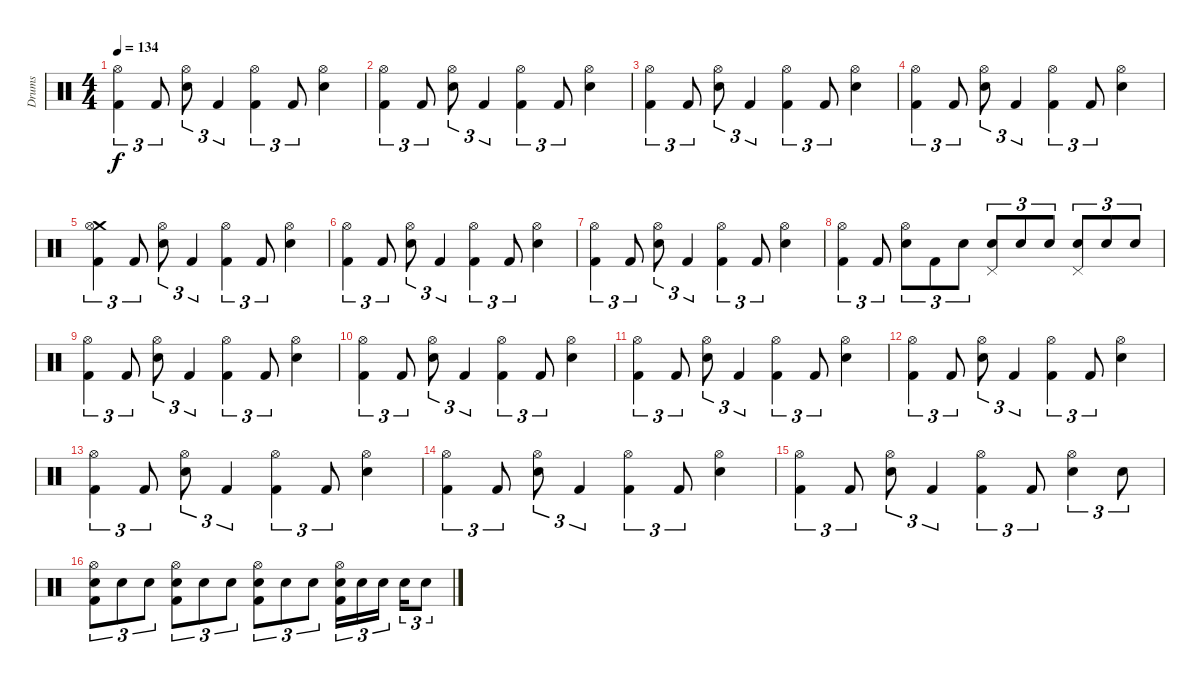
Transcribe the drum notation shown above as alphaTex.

\track ("Drums" "Drums") {instrument percussion}
\staff {score}
\articulation defaults
\ts (4 4)
\tempo 134
\clef neutral
\ks c
("Hi-Hat (open)" "Kick (hit) 2").4{tu (3 2) dy f} "Kick (hit) 2".8{tu (3 2)} ("Hi-Hat (open)" "Electric Snare (hit)").8{tu (3 2)} "Kick (hit) 2".4{tu (3 2)} ("Hi-Hat (open)" "Kick (hit) 2").4{tu (3 2)} "Kick (hit) 2".8{tu (3 2)} ("Hi-Hat (open)" "Electric Snare (hit)").4 |
("Hi-Hat (open)" "Kick (hit) 2").4{tu (3 2)} "Kick (hit) 2".8{tu (3 2)} ("Hi-Hat (open)" "Electric Snare (hit)").8{tu (3 2)} "Kick (hit) 2".4{tu (3 2)} ("Hi-Hat (open)" "Kick (hit) 2").4{tu (3 2)} "Kick (hit) 2".8{tu (3 2)} ("Hi-Hat (open)" "Electric Snare (hit)").4 |
("Hi-Hat (open)" "Kick (hit) 2").4{tu (3 2)} "Kick (hit) 2".8{tu (3 2)} ("Hi-Hat (open)" "Electric Snare (hit)").8{tu (3 2)} "Kick (hit) 2".4{tu (3 2)} ("Hi-Hat (open)" "Kick (hit) 2").4{tu (3 2)} "Kick (hit) 2".8{tu (3 2)} ("Hi-Hat (open)" "Electric Snare (hit)").4 |
("Hi-Hat (open)" "Kick (hit) 2").4{tu (3 2)} "Kick (hit) 2".8{tu (3 2)} ("Hi-Hat (open)" "Electric Snare (hit)").8{tu (3 2)} "Kick (hit) 2".4{tu (3 2)} ("Hi-Hat (open)" "Kick (hit) 2").4{tu (3 2)} "Kick (hit) 2".8{tu (3 2)} ("Hi-Hat (open)" "Electric Snare (hit)").4 |
("Crash medium (hit)" "Hi-Hat (open)" "Kick (hit) 2").4{tu (3 2)} "Kick (hit) 2".8{tu (3 2)} ("Hi-Hat (open)" "Electric Snare (hit)").8{tu (3 2)} "Kick (hit) 2".4{tu (3 2)} ("Hi-Hat (open)" "Kick (hit) 2").4{tu (3 2)} "Kick (hit) 2".8{tu (3 2)} ("Hi-Hat (open)" "Electric Snare (hit)").4 |
("Hi-Hat (open)" "Kick (hit) 2").4{tu (3 2)} "Kick (hit) 2".8{tu (3 2)} ("Hi-Hat (open)" "Electric Snare (hit)").8{tu (3 2)} "Kick (hit) 2".4{tu (3 2)} ("Hi-Hat (open)" "Kick (hit) 2").4{tu (3 2)} "Kick (hit) 2".8{tu (3 2)} ("Hi-Hat (open)" "Electric Snare (hit)").4 |
("Hi-Hat (open)" "Kick (hit) 2").4{tu (3 2)} "Kick (hit) 2".8{tu (3 2)} ("Hi-Hat (open)" "Electric Snare (hit)").8{tu (3 2)} "Kick (hit) 2".4{tu (3 2)} ("Hi-Hat (open)" "Kick (hit) 2").4{tu (3 2)} "Kick (hit) 2".8{tu (3 2)} ("Hi-Hat (open)" "Electric Snare (hit)").4 |
("Hi-Hat (open)" "Kick (hit) 2").4{tu (3 2)} "Kick (hit) 2".8{tu (3 2)} ("Hi-Hat (open)" "Electric Snare (hit)").8{tu (3 2)} "Kick (hit) 2".8{tu (3 2)} "Electric Snare (hit)".8{tu (3 2)} ("Pedal Hi-Hat (hit)" "Electric Snare (hit)").8{tu (3 2)} "Electric Snare (hit)".8{tu (3 2)} "Electric Snare (hit)".8{tu (3 2)} ("Pedal Hi-Hat (hit)" "Electric Snare (hit)").8{tu (3 2)} "Electric Snare (hit)".8{tu (3 2)} "Electric Snare (hit)".8{tu (3 2)} |
("Hi-Hat (open)" "Kick (hit) 2").4{tu (3 2)} "Kick (hit) 2".8{tu (3 2)} ("Hi-Hat (open)" "Electric Snare (hit)").8{tu (3 2)} "Kick (hit) 2".4{tu (3 2)} ("Hi-Hat (open)" "Kick (hit) 2").4{tu (3 2)} "Kick (hit) 2".8{tu (3 2)} ("Hi-Hat (open)" "Electric Snare (hit)").4 |
("Hi-Hat (open)" "Kick (hit) 2").4{tu (3 2)} "Kick (hit) 2".8{tu (3 2)} ("Hi-Hat (open)" "Electric Snare (hit)").8{tu (3 2)} "Kick (hit) 2".4{tu (3 2)} ("Hi-Hat (open)" "Kick (hit) 2").4{tu (3 2)} "Kick (hit) 2".8{tu (3 2)} ("Hi-Hat (open)" "Electric Snare (hit)").4 |
("Hi-Hat (open)" "Kick (hit) 2").4{tu (3 2)} "Kick (hit) 2".8{tu (3 2)} ("Hi-Hat (open)" "Electric Snare (hit)").8{tu (3 2)} "Kick (hit) 2".4{tu (3 2)} ("Hi-Hat (open)" "Kick (hit) 2").4{tu (3 2)} "Kick (hit) 2".8{tu (3 2)} ("Hi-Hat (open)" "Electric Snare (hit)").4 |
("Hi-Hat (open)" "Kick (hit) 2").4{tu (3 2)} "Kick (hit) 2".8{tu (3 2)} ("Hi-Hat (open)" "Electric Snare (hit)").8{tu (3 2)} "Kick (hit) 2".4{tu (3 2)} ("Hi-Hat (open)" "Kick (hit) 2").4{tu (3 2)} "Kick (hit) 2".8{tu (3 2)} ("Hi-Hat (open)" "Electric Snare (hit)").4 |
("Hi-Hat (open)" "Kick (hit) 2").4{tu (3 2)} "Kick (hit) 2".8{tu (3 2)} ("Hi-Hat (open)" "Electric Snare (hit)").8{tu (3 2)} "Kick (hit) 2".4{tu (3 2)} ("Hi-Hat (open)" "Kick (hit) 2").4{tu (3 2)} "Kick (hit) 2".8{tu (3 2)} ("Hi-Hat (open)" "Electric Snare (hit)").4 |
("Hi-Hat (open)" "Kick (hit) 2").4{tu (3 2)} "Kick (hit) 2".8{tu (3 2)} ("Hi-Hat (open)" "Electric Snare (hit)").8{tu (3 2)} "Kick (hit) 2".4{tu (3 2)} ("Hi-Hat (open)" "Kick (hit) 2").4{tu (3 2)} "Kick (hit) 2".8{tu (3 2)} ("Hi-Hat (open)" "Electric Snare (hit)").4 |
("Hi-Hat (open)" "Kick (hit) 2").4{tu (3 2)} "Kick (hit) 2".8{tu (3 2)} ("Hi-Hat (open)" "Electric Snare (hit)").8{tu (3 2)} "Kick (hit) 2".4{tu (3 2)} ("Hi-Hat (open)" "Kick (hit) 2").4{tu (3 2)} "Kick (hit) 2".8{tu (3 2)} ("Hi-Hat (open)" "Electric Snare (hit)").4{tu (3 2)} "Electric Snare (hit)".8{tu (3 2)} |
("Hi-Hat (open)" "Electric Snare (hit)" "Kick (hit) 2").8{tu (3 2)} "Electric Snare (hit)".8{tu (3 2)} "Electric Snare (hit)".8{tu (3 2)} ("Hi-Hat (open)" "Electric Snare (hit)" "Kick (hit) 2").8{tu (3 2)} "Electric Snare (hit)".8{tu (3 2)} "Electric Snare (hit)".8{tu (3 2)} ("Hi-Hat (open)" "Electric Snare (hit)" "Kick (hit) 2").8{tu (3 2)} "Electric Snare (hit)".8{tu (3 2)} "Electric Snare (hit)".8{tu (3 2)} ("Hi-Hat (open)" "Electric Snare (hit)" "Kick (hit) 2").16{tu (3 2)} "Electric Snare (hit)".16{tu (3 2)} "Electric Snare (hit)".16{tu (3 2)} "Electric Snare (hit)".16{tu (3 2)} "Electric Snare (hit)".8{tu (3 2)}
